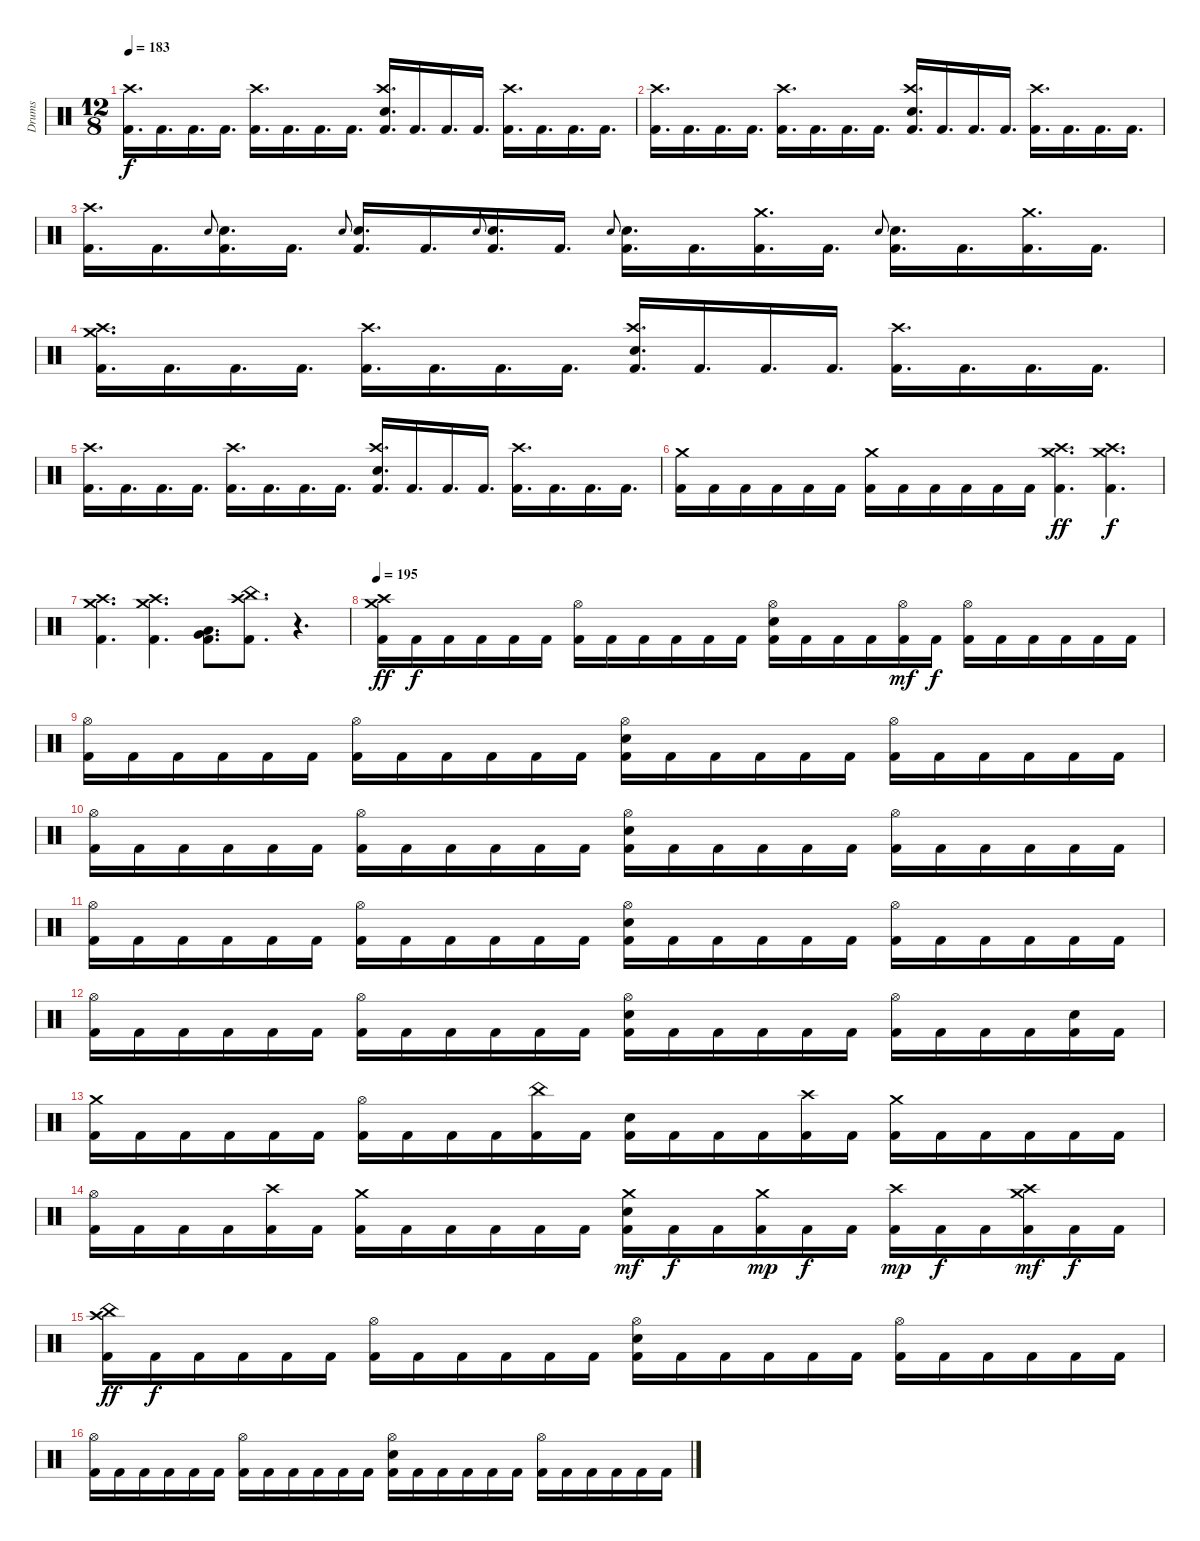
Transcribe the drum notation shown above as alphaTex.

\track ("Drums" "Drums") {instrument percussion}
\staff {score}
\articulation defaults
\ts (12 8)
\tempo 183
\clef neutral
\ks c
("Kick (hit) 2" "Crash high (hit)").16{d dy f} "Kick (hit) 2".16{d} "Kick (hit) 2".16{d} "Kick (hit) 2".16{d} ("Kick (hit) 2" "Crash high (hit)").16{d} "Kick (hit) 2".16{d} "Kick (hit) 2".16{d} "Kick (hit) 2".16{d} ("Kick (hit) 2" "Electric Snare (hit)" "Crash high (hit)").16{d} "Kick (hit) 2".16{d} "Kick (hit) 2".16{d} "Kick (hit) 2".16{d} ("Kick (hit) 2" "Crash high (hit)").16{d} "Kick (hit) 2".16{d} "Kick (hit) 2".16{d} "Kick (hit) 2".16{d} |
("Kick (hit) 2" "Crash high (hit)").16{d} "Kick (hit) 2".16{d} "Kick (hit) 2".16{d} "Kick (hit) 2".16{d} ("Kick (hit) 2" "Crash high (hit)").16{d} "Kick (hit) 2".16{d} "Kick (hit) 2".16{d} "Kick (hit) 2".16{d} ("Kick (hit) 2" "Electric Snare (hit)" "Crash high (hit)").16{d} "Kick (hit) 2".16{d} "Kick (hit) 2".16{d} "Kick (hit) 2".16{d} ("Kick (hit) 2" "Crash high (hit)").16{d} "Kick (hit) 2".16{d} "Kick (hit) 2".16{d} "Kick (hit) 2".16{d} |
("Kick (hit) 2" "Crash high (hit)").16{d} "Kick (hit) 2".16{d} "Electric Snare (hit)".8{gr onbeat} ("Kick (hit) 2" "Electric Snare (hit)").16{d} "Kick (hit) 2".16{d} "Electric Snare (hit)".8{gr onbeat} ("Kick (hit) 2" "Electric Snare (hit)").16{d} "Kick (hit) 2".16{d} "Electric Snare (hit)".8{gr onbeat} ("Kick (hit) 2" "Electric Snare (hit)").16{d} "Kick (hit) 2".16{d} "Electric Snare (hit)".8{gr onbeat} ("Kick (hit) 2" "Electric Snare (hit)").16{d} "Kick (hit) 2".16{d} ("Kick (hit) 2" "Crash medium (hit)").16{d} "Kick (hit) 2".16{d} "Electric Snare (hit)".8{gr onbeat} ("Kick (hit) 2" "Electric Snare (hit)").16{d} "Kick (hit) 2".16{d} ("Kick (hit) 2" "Crash medium (hit)").16{d} "Kick (hit) 2".16{d} |
("Kick (hit) 2" "Crash high (hit)" "Crash medium (hit)").16{d} "Kick (hit) 2".16{d} "Kick (hit) 2".16{d} "Kick (hit) 2".16{d} ("Kick (hit) 2" "Crash high (hit)").16{d} "Kick (hit) 2".16{d} "Kick (hit) 2".16{d} "Kick (hit) 2".16{d} ("Kick (hit) 2" "Electric Snare (hit)" "Crash high (hit)").16{d} "Kick (hit) 2".16{d} "Kick (hit) 2".16{d} "Kick (hit) 2".16{d} ("Kick (hit) 2" "Crash high (hit)").16{d} "Kick (hit) 2".16{d} "Kick (hit) 2".16{d} "Kick (hit) 2".16{d} |
("Kick (hit) 2" "Crash high (hit)").16{d} "Kick (hit) 2".16{d} "Kick (hit) 2".16{d} "Kick (hit) 2".16{d} ("Kick (hit) 2" "Crash high (hit)").16{d} "Kick (hit) 2".16{d} "Kick (hit) 2".16{d} "Kick (hit) 2".16{d} ("Kick (hit) 2" "Electric Snare (hit)" "Crash high (hit)").16{d} "Kick (hit) 2".16{d} "Kick (hit) 2".16{d} "Kick (hit) 2".16{d} ("Kick (hit) 2" "Crash high (hit)").16{d} "Kick (hit) 2".16{d} "Kick (hit) 2".16{d} "Kick (hit) 2".16{d} |
("Kick (hit) 2" "Crash medium (hit)").16 "Kick (hit) 2".16 "Kick (hit) 2".16 "Kick (hit) 2".16 "Kick (hit) 2".16 "Kick (hit) 2".16 ("Kick (hit) 2" "Crash medium (hit)").16 "Kick (hit) 2".16 "Kick (hit) 2".16 "Kick (hit) 2".16 "Kick (hit) 2".16 "Kick (hit) 2".16 ("Kick (hit) 2" "Crash high (hit)" "Crash medium (hit)").4{d dy ff} ("Kick (hit) 2" "Crash high (hit)" "Crash medium (hit)").4{d dy f} |
("Kick (hit) 2" "Crash high (hit)" "Crash medium (hit)").4{d} ("Kick (hit) 2" "Crash high (hit)" "Crash medium (hit)").4{d} ("Kick (hit) 2" "Very Low Tom (hit)" "Low Tom (hit)").8{d} ("Kick (hit) 2" "Crash high (hit)" "China (hit)").8{d} r.4{d} |
\tempo 195
("Kick (hit) 2" "Crash high (hit)" "Crash medium (hit)").16{dy ff} "Kick (hit) 2".16{dy f} "Kick (hit) 2".16 "Kick (hit) 2".16 "Kick (hit) 2".16 "Kick (hit) 2".16 ("Kick (hit) 2" "Hi-Hat (open)").16 "Kick (hit) 2".16 "Kick (hit) 2".16 "Kick (hit) 2".16 "Kick (hit) 2".16 "Kick (hit) 2".16 ("Kick (hit) 2" "Electric Snare (hit)" "Hi-Hat (open)").16 "Kick (hit) 2".16 "Kick (hit) 2".16 "Kick (hit) 2".16 ("Kick (hit) 2" "Hi-Hat (open)").16{dy mf} "Kick (hit) 2".16{dy f} ("Kick (hit) 2" "Hi-Hat (open)").16 "Kick (hit) 2".16 "Kick (hit) 2".16 "Kick (hit) 2".16 "Kick (hit) 2".16 "Kick (hit) 2".16 |
("Kick (hit) 2" "Hi-Hat (open)").16 "Kick (hit) 2".16 "Kick (hit) 2".16 "Kick (hit) 2".16 "Kick (hit) 2".16 "Kick (hit) 2".16 ("Kick (hit) 2" "Hi-Hat (open)").16 "Kick (hit) 2".16 "Kick (hit) 2".16 "Kick (hit) 2".16 "Kick (hit) 2".16 "Kick (hit) 2".16 ("Kick (hit) 2" "Electric Snare (hit)" "Hi-Hat (open)").16 "Kick (hit) 2".16 "Kick (hit) 2".16 "Kick (hit) 2".16 "Kick (hit) 2".16 "Kick (hit) 2".16 ("Kick (hit) 2" "Hi-Hat (open)").16 "Kick (hit) 2".16 "Kick (hit) 2".16 "Kick (hit) 2".16 "Kick (hit) 2".16 "Kick (hit) 2".16 |
("Kick (hit) 2" "Hi-Hat (open)").16 "Kick (hit) 2".16 "Kick (hit) 2".16 "Kick (hit) 2".16 "Kick (hit) 2".16 "Kick (hit) 2".16 ("Kick (hit) 2" "Hi-Hat (open)").16 "Kick (hit) 2".16 "Kick (hit) 2".16 "Kick (hit) 2".16 "Kick (hit) 2".16 "Kick (hit) 2".16 ("Kick (hit) 2" "Electric Snare (hit)" "Hi-Hat (open)").16 "Kick (hit) 2".16 "Kick (hit) 2".16 "Kick (hit) 2".16 "Kick (hit) 2".16 "Kick (hit) 2".16 ("Kick (hit) 2" "Hi-Hat (open)").16 "Kick (hit) 2".16 "Kick (hit) 2".16 "Kick (hit) 2".16 "Kick (hit) 2".16 "Kick (hit) 2".16 |
("Kick (hit) 2" "Hi-Hat (open)").16 "Kick (hit) 2".16 "Kick (hit) 2".16 "Kick (hit) 2".16 "Kick (hit) 2".16 "Kick (hit) 2".16 ("Kick (hit) 2" "Hi-Hat (open)").16 "Kick (hit) 2".16 "Kick (hit) 2".16 "Kick (hit) 2".16 "Kick (hit) 2".16 "Kick (hit) 2".16 ("Kick (hit) 2" "Electric Snare (hit)" "Hi-Hat (open)").16 "Kick (hit) 2".16 "Kick (hit) 2".16 "Kick (hit) 2".16 "Kick (hit) 2".16 "Kick (hit) 2".16 ("Kick (hit) 2" "Hi-Hat (open)").16 "Kick (hit) 2".16 "Kick (hit) 2".16 "Kick (hit) 2".16 "Kick (hit) 2".16 "Kick (hit) 2".16 |
("Kick (hit) 2" "Hi-Hat (open)").16 "Kick (hit) 2".16 "Kick (hit) 2".16 "Kick (hit) 2".16 "Kick (hit) 2".16 "Kick (hit) 2".16 ("Kick (hit) 2" "Hi-Hat (open)").16 "Kick (hit) 2".16 "Kick (hit) 2".16 "Kick (hit) 2".16 "Kick (hit) 2".16 "Kick (hit) 2".16 ("Kick (hit) 2" "Electric Snare (hit)" "Hi-Hat (open)").16 "Kick (hit) 2".16 "Kick (hit) 2".16 "Kick (hit) 2".16 "Kick (hit) 2".16 "Kick (hit) 2".16 ("Kick (hit) 2" "Hi-Hat (open)").16 "Kick (hit) 2".16 "Kick (hit) 2".16 "Kick (hit) 2".16 ("Kick (hit) 2" "Electric Snare (hit)").16 "Kick (hit) 2".16 |
("Kick (hit) 2" "Crash medium (hit)").16 "Kick (hit) 2".16 "Kick (hit) 2".16 "Kick (hit) 2".16 "Kick (hit) 2".16 "Kick (hit) 2".16 ("Kick (hit) 2" "Hi-Hat (open)").16 "Kick (hit) 2".16 "Kick (hit) 2".16 "Kick (hit) 2".16 ("Kick (hit) 2" "China (hit)").16 "Kick (hit) 2".16 ("Kick (hit) 2" "Electric Snare (hit)").16 "Kick (hit) 2".16 "Kick (hit) 2".16 "Kick (hit) 2".16 ("Kick (hit) 2" "Crash high (hit)").16 "Kick (hit) 2".16 ("Kick (hit) 2" "Crash medium (hit)").16 "Kick (hit) 2".16 "Kick (hit) 2".16 "Kick (hit) 2".16 "Kick (hit) 2".16 "Kick (hit) 2".16 |
("Kick (hit) 2" "Hi-Hat (open)").16 "Kick (hit) 2".16 "Kick (hit) 2".16 "Kick (hit) 2".16 ("Kick (hit) 2" "Crash high (hit)").16 "Kick (hit) 2".16 ("Kick (hit) 2" "Crash medium (hit)").16 "Kick (hit) 2".16 "Kick (hit) 2".16 "Kick (hit) 2".16 "Kick (hit) 2".16 "Kick (hit) 2".16 ("Kick (hit) 2" "Electric Snare (hit)" "Crash medium (hit)").16{dy mf} "Kick (hit) 2".16{dy f} "Kick (hit) 2".16 ("Kick (hit) 2" "Crash medium (hit)").16{dy mp} "Kick (hit) 2".16{dy f} "Kick (hit) 2".16 ("Kick (hit) 2" "Crash high (hit)").16{dy mp} "Kick (hit) 2".16{dy f} "Kick (hit) 2".16 ("Kick (hit) 2" "Crash high (hit)" "Crash medium (hit)").16{dy mf} "Kick (hit) 2".16{dy f} "Kick (hit) 2".16 |
("Kick (hit) 2" "Crash high (hit)" "China (hit)").16{dy ff} "Kick (hit) 2".16{dy f} "Kick (hit) 2".16 "Kick (hit) 2".16 "Kick (hit) 2".16 "Kick (hit) 2".16 ("Kick (hit) 2" "Hi-Hat (open)").16 "Kick (hit) 2".16 "Kick (hit) 2".16 "Kick (hit) 2".16 "Kick (hit) 2".16 "Kick (hit) 2".16 ("Kick (hit) 2" "Electric Snare (hit)" "Hi-Hat (open)").16 "Kick (hit) 2".16 "Kick (hit) 2".16 "Kick (hit) 2".16 "Kick (hit) 2".16 "Kick (hit) 2".16 ("Kick (hit) 2" "Hi-Hat (open)").16 "Kick (hit) 2".16 "Kick (hit) 2".16 "Kick (hit) 2".16 "Kick (hit) 2".16 "Kick (hit) 2".16 |
("Kick (hit) 2" "Hi-Hat (open)").16 "Kick (hit) 2".16 "Kick (hit) 2".16 "Kick (hit) 2".16 "Kick (hit) 2".16 "Kick (hit) 2".16 ("Kick (hit) 2" "Hi-Hat (open)").16 "Kick (hit) 2".16 "Kick (hit) 2".16 "Kick (hit) 2".16 "Kick (hit) 2".16 "Kick (hit) 2".16 ("Kick (hit) 2" "Electric Snare (hit)" "Hi-Hat (open)").16 "Kick (hit) 2".16 "Kick (hit) 2".16 "Kick (hit) 2".16 "Kick (hit) 2".16 "Kick (hit) 2".16 ("Kick (hit) 2" "Hi-Hat (open)").16 "Kick (hit) 2".16 "Kick (hit) 2".16 "Kick (hit) 2".16 "Kick (hit) 2".16 "Kick (hit) 2".16
